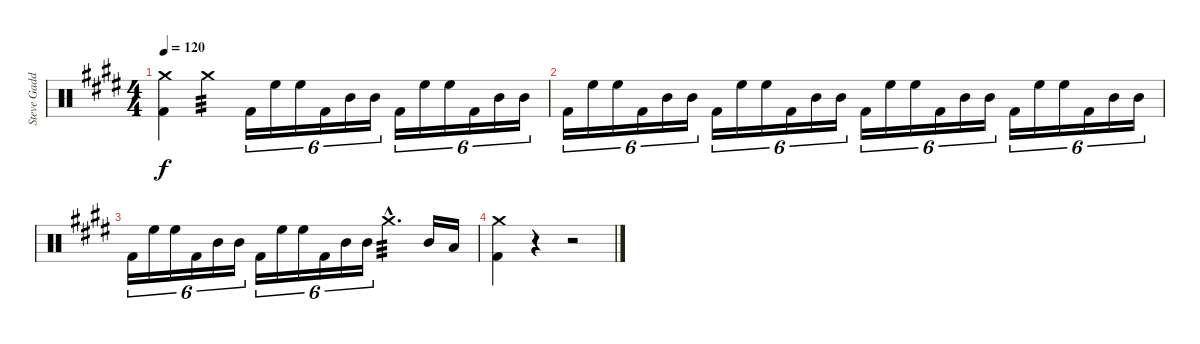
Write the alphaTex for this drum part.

\track ("Steve Gadd Drums" "Steve Gadd") {instrument percussion}
\staff {score}
\articulation defaults
\ts (4 4)
\tempo 120
\clef neutral
\ks e
("Crash medium (hit)" "Kick (hit) 2").4{dy f} "Crash medium (hit)".4{tp 3} "Kick (hit) 2".16{tu (6 4)} "High Floor Tom (hit)".16{tu (6 4)} "High Floor Tom (hit)".16{tu (6 4)} "Kick (hit) 2".16{tu (6 4)} "Mid Tom (hit)".16{tu (6 4)} "Mid Tom (hit)".16{tu (6 4)} "Kick (hit) 2".16{tu (6 4)} "High Floor Tom (hit)".16{tu (6 4)} "High Floor Tom (hit)".16{tu (6 4)} "Kick (hit) 2".16{tu (6 4)} "Mid Tom (hit)".16{tu (6 4)} "Mid Tom (hit)".16{tu (6 4)} |
"Kick (hit) 2".16{tu (6 4)} "High Floor Tom (hit)".16{tu (6 4)} "High Floor Tom (hit)".16{tu (6 4)} "Kick (hit) 2".16{tu (6 4)} "Mid Tom (hit)".16{tu (6 4)} "Mid Tom (hit)".16{tu (6 4)} "Kick (hit) 2".16{tu (6 4)} "High Floor Tom (hit)".16{tu (6 4)} "High Floor Tom (hit)".16{tu (6 4)} "Kick (hit) 2".16{tu (6 4)} "Mid Tom (hit)".16{tu (6 4)} "Mid Tom (hit)".16{tu (6 4)} "Kick (hit) 2".16{tu (6 4)} "High Floor Tom (hit)".16{tu (6 4)} "High Floor Tom (hit)".16{tu (6 4)} "Kick (hit) 2".16{tu (6 4)} "Mid Tom (hit)".16{tu (6 4)} "Mid Tom (hit)".16{tu (6 4)} "Kick (hit) 2".16{tu (6 4)} "High Floor Tom (hit)".16{tu (6 4)} "High Floor Tom (hit)".16{tu (6 4)} "Kick (hit) 2".16{tu (6 4)} "Mid Tom (hit)".16{tu (6 4)} "Mid Tom (hit)".16{tu (6 4)} |
"Kick (hit) 2".16{tu (6 4)} "High Floor Tom (hit)".16{tu (6 4)} "High Floor Tom (hit)".16{tu (6 4)} "Kick (hit) 2".16{tu (6 4)} "Mid Tom (hit)".16{tu (6 4)} "Mid Tom (hit)".16{tu (6 4)} "Kick (hit) 2".16{tu (6 4)} "High Floor Tom (hit)".16{tu (6 4)} "High Floor Tom (hit)".16{tu (6 4)} "Kick (hit) 2".16{tu (6 4)} "Mid Tom (hit)".16{tu (6 4)} "Mid Tom (hit)".16{tu (6 4)} "Crash medium (hit)"{hac}.4{d tp 3} "Mid Tom (hit)".16 "Low Tom (hit)".16 |
("Crash medium (hit)" "Kick (hit) 2").4 r.4 r.2
